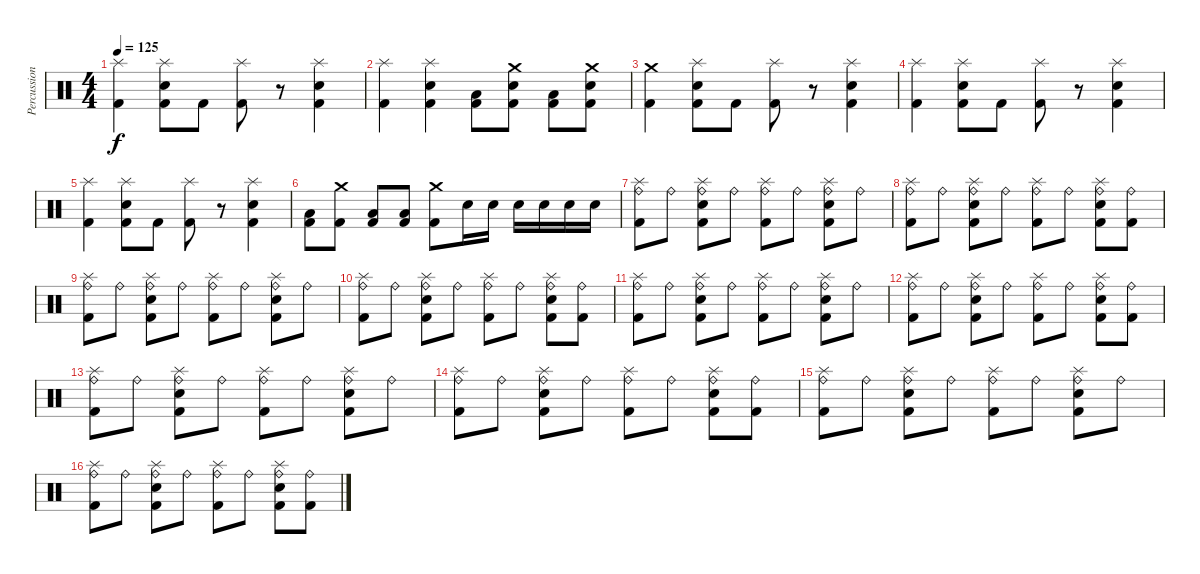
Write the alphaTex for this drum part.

\track ("Percussion" "Percussion") {instrument percussion}
\staff {score}
\articulation defaults
\ts (4 4)
\tempo 125
\clef neutral
\ks c
("Splash (hit)" "Kick (hit) 2").4{dy f} ("Splash (hit)" "Snare (hit) 2" "Kick (hit) 2").8 "Kick (hit) 2".8 ("Splash (hit)" "Kick (hit) 2").8 r.8 ("Splash (hit)" "Snare (hit) 2" "Kick (hit) 2").4 |
("Splash (hit)" "Kick (hit) 2").4 ("Splash (hit)" "Snare (hit) 2" "Kick (hit) 2").4 ("Low Floor Tom (hit)" "Kick (hit) 2").8 ("Crash medium (hit)" "Snare (hit) 2" "Kick (hit) 2").8 ("Low Floor Tom (hit)" "Kick (hit) 2").8 ("Crash medium (hit)" "Snare (hit) 2" "Kick (hit) 2").8 |
("Crash medium (hit)" "Kick (hit) 2").4 ("Splash (hit)" "Snare (hit) 2" "Kick (hit) 2").8 "Kick (hit) 2".8 ("Splash (hit)" "Kick (hit) 2").8 r.8 ("Splash (hit)" "Snare (hit) 2" "Kick (hit) 2").4 |
("Splash (hit)" "Kick (hit) 2").4 ("Splash (hit)" "Snare (hit) 2" "Kick (hit) 2").8 "Kick (hit) 2".8 ("Splash (hit)" "Kick (hit) 2").8 r.8 ("Splash (hit)" "Snare (hit) 2" "Kick (hit) 2").4 |
("Splash (hit)" "Kick (hit) 2").4 ("Splash (hit)" "Snare (hit) 2" "Kick (hit) 2").8 "Kick (hit) 2".8 ("Splash (hit)" "Kick (hit) 2").8 r.8 ("Splash (hit)" "Snare (hit) 2" "Kick (hit) 2").4 |
("Low Floor Tom (hit)" "Kick (hit) 2").8 ("Crash medium (hit)" "Kick (hit) 2").8 ("Low Floor Tom (hit)" "Kick (hit) 2").8 ("Low Floor Tom (hit)" "Kick (hit) 2").8 ("Crash medium (hit)" "Kick (hit) 2").8 "Snare (hit) 2".16 "Snare (hit) 2".16 "Snare (hit) 2".16 "Snare (hit) 2".16 "Snare (hit) 2".16 "Snare (hit) 2".16 |
("Splash (hit)" "Ride (bell)" "Kick (hit) 2").8 "Ride (bell)".8 ("Splash (hit)" "Ride (bell)" "Snare (hit) 2" "Kick (hit) 2").8 "Ride (bell)".8 ("Splash (hit)" "Ride (bell)" "Kick (hit) 2").8 "Ride (bell)".8 ("Splash (hit)" "Ride (bell)" "Snare (hit) 2" "Kick (hit) 2").8 "Ride (bell)".8 |
("Splash (hit)" "Ride (bell)" "Kick (hit) 2").8 "Ride (bell)".8 ("Splash (hit)" "Ride (bell)" "Snare (hit) 2" "Kick (hit) 2").8 "Ride (bell)".8 ("Splash (hit)" "Ride (bell)" "Kick (hit) 2").8 "Ride (bell)".8 ("Splash (hit)" "Ride (bell)" "Snare (hit) 2" "Kick (hit) 2").8 ("Ride (bell)" "Kick (hit) 2").8 |
("Splash (hit)" "Ride (bell)" "Kick (hit) 2").8 "Ride (bell)".8 ("Splash (hit)" "Ride (bell)" "Snare (hit) 2" "Kick (hit) 2").8 "Ride (bell)".8 ("Splash (hit)" "Ride (bell)" "Kick (hit) 2").8 "Ride (bell)".8 ("Splash (hit)" "Ride (bell)" "Snare (hit) 2" "Kick (hit) 2").8 "Ride (bell)".8 |
("Splash (hit)" "Ride (bell)" "Kick (hit) 2").8 "Ride (bell)".8 ("Splash (hit)" "Ride (bell)" "Snare (hit) 2" "Kick (hit) 2").8 "Ride (bell)".8 ("Splash (hit)" "Ride (bell)" "Kick (hit) 2").8 "Ride (bell)".8 ("Splash (hit)" "Ride (bell)" "Snare (hit) 2" "Kick (hit) 2").8 ("Ride (bell)" "Kick (hit) 2").8 |
("Splash (hit)" "Ride (bell)" "Kick (hit) 2").8 "Ride (bell)".8 ("Splash (hit)" "Ride (bell)" "Snare (hit) 2" "Kick (hit) 2").8 "Ride (bell)".8 ("Splash (hit)" "Ride (bell)" "Kick (hit) 2").8 "Ride (bell)".8 ("Splash (hit)" "Ride (bell)" "Snare (hit) 2" "Kick (hit) 2").8 "Ride (bell)".8 |
("Splash (hit)" "Ride (bell)" "Kick (hit) 2").8 "Ride (bell)".8 ("Splash (hit)" "Ride (bell)" "Snare (hit) 2" "Kick (hit) 2").8 "Ride (bell)".8 ("Splash (hit)" "Ride (bell)" "Kick (hit) 2").8 "Ride (bell)".8 ("Splash (hit)" "Ride (bell)" "Snare (hit) 2" "Kick (hit) 2").8 ("Ride (bell)" "Kick (hit) 2").8 |
("Splash (hit)" "Ride (bell)" "Kick (hit) 2").8 "Ride (bell)".8 ("Splash (hit)" "Ride (bell)" "Snare (hit) 2" "Kick (hit) 2").8 "Ride (bell)".8 ("Splash (hit)" "Ride (bell)" "Kick (hit) 2").8 "Ride (bell)".8 ("Splash (hit)" "Ride (bell)" "Snare (hit) 2" "Kick (hit) 2").8 "Ride (bell)".8 |
("Splash (hit)" "Ride (bell)" "Kick (hit) 2").8 "Ride (bell)".8 ("Splash (hit)" "Ride (bell)" "Snare (hit) 2" "Kick (hit) 2").8 "Ride (bell)".8 ("Splash (hit)" "Ride (bell)" "Kick (hit) 2").8 "Ride (bell)".8 ("Splash (hit)" "Ride (bell)" "Snare (hit) 2" "Kick (hit) 2").8 ("Ride (bell)" "Kick (hit) 2").8 |
("Splash (hit)" "Ride (bell)" "Kick (hit) 2").8 "Ride (bell)".8 ("Splash (hit)" "Ride (bell)" "Snare (hit) 2" "Kick (hit) 2").8 "Ride (bell)".8 ("Splash (hit)" "Ride (bell)" "Kick (hit) 2").8 "Ride (bell)".8 ("Splash (hit)" "Ride (bell)" "Snare (hit) 2" "Kick (hit) 2").8 "Ride (bell)".8 |
("Splash (hit)" "Ride (bell)" "Kick (hit) 2").8 "Ride (bell)".8 ("Splash (hit)" "Ride (bell)" "Snare (hit) 2" "Kick (hit) 2").8 "Ride (bell)".8 ("Splash (hit)" "Ride (bell)" "Kick (hit) 2").8 "Ride (bell)".8 ("Splash (hit)" "Ride (bell)" "Snare (hit) 2" "Kick (hit) 2").8 ("Ride (bell)" "Kick (hit) 2").8
